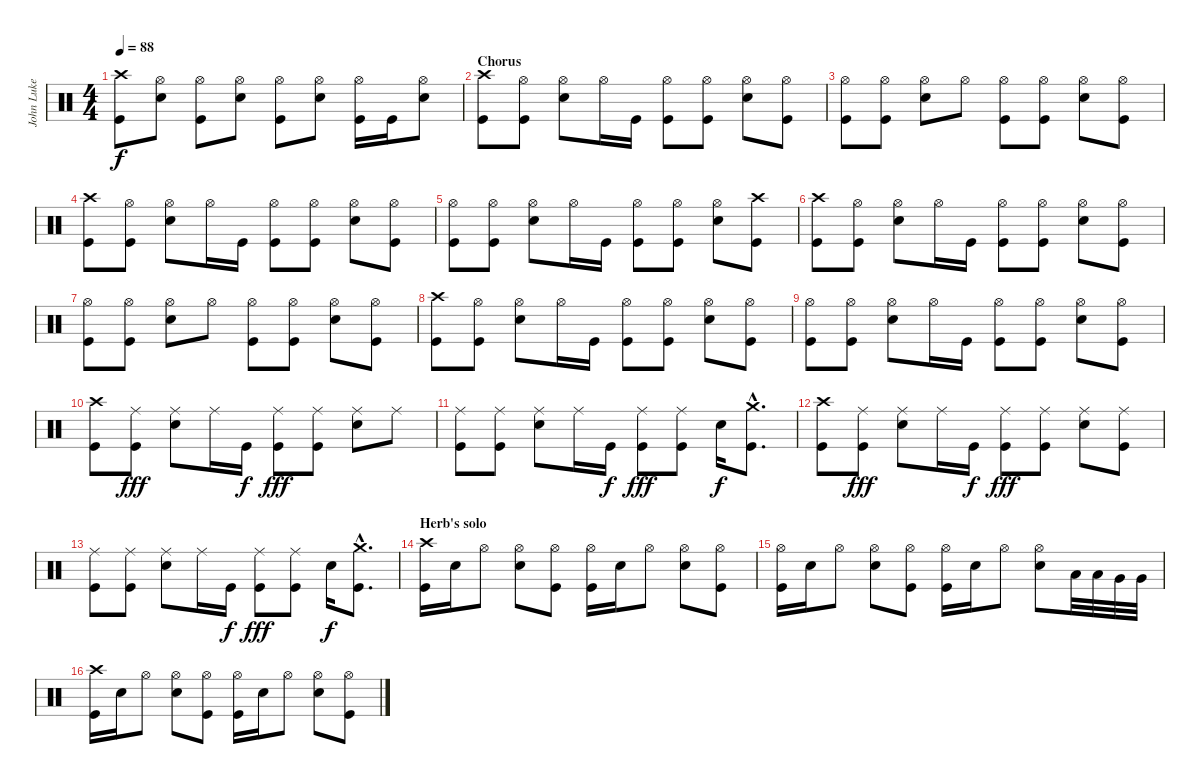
\track ("John Luke (Drums)" "John Luke ") {instrument percussion}
\staff {score}
\articulation defaults
\ts (4 4)
\tempo 88
\clef neutral
\ks c
("Crash high (hit)" "Kick (hit)").8{dy f} ("Hi-Hat (open)" "Electric Snare (hit)").8 ("Hi-Hat (open)" "Kick (hit)").8 ("Hi-Hat (open)" "Electric Snare (hit)").8 ("Hi-Hat (open)" "Kick (hit)").8 ("Hi-Hat (open)" "Electric Snare (hit)").8 ("Hi-Hat (open)" "Kick (hit)").16 "Kick (hit)".16 ("Hi-Hat (open)" "Electric Snare (hit)").8 |
\section ("" "Chorus")
("Crash high (hit)" "Kick (hit)").8 ("Hi-Hat (open)" "Kick (hit)").8 ("Hi-Hat (open)" "Electric Snare (hit)").8 "Hi-Hat (open)".16 "Kick (hit)".16 ("Hi-Hat (open)" "Kick (hit)").8 ("Hi-Hat (open)" "Kick (hit)").8 ("Hi-Hat (open)" "Electric Snare (hit)").8 ("Hi-Hat (open)" "Kick (hit)").8 |
("Hi-Hat (open)" "Kick (hit)").8 ("Hi-Hat (open)" "Kick (hit)").8 ("Hi-Hat (open)" "Electric Snare (hit)").8 "Hi-Hat (open)".8 ("Hi-Hat (open)" "Kick (hit)").8 ("Hi-Hat (open)" "Kick (hit)").8 ("Hi-Hat (open)" "Electric Snare (hit)").8 ("Hi-Hat (open)" "Kick (hit)").8 |
("Crash high (hit)" "Kick (hit)").8 ("Hi-Hat (open)" "Kick (hit)").8 ("Hi-Hat (open)" "Electric Snare (hit)").8 "Hi-Hat (open)".16 "Kick (hit)".16 ("Hi-Hat (open)" "Kick (hit)").8 ("Hi-Hat (open)" "Kick (hit)").8 ("Hi-Hat (open)" "Electric Snare (hit)").8 ("Hi-Hat (open)" "Kick (hit)").8 |
("Hi-Hat (open)" "Kick (hit)").8 ("Hi-Hat (open)" "Kick (hit)").8 ("Hi-Hat (open)" "Electric Snare (hit)").8 "Hi-Hat (open)".16 "Kick (hit)".16 ("Hi-Hat (open)" "Kick (hit)").8 ("Hi-Hat (open)" "Kick (hit)").8 ("Hi-Hat (open)" "Electric Snare (hit)").8 ("Crash high (hit)" "Kick (hit)").8 |
("Crash high (hit)" "Kick (hit)").8 ("Hi-Hat (open)" "Kick (hit)").8 ("Hi-Hat (open)" "Electric Snare (hit)").8 "Hi-Hat (open)".16 "Kick (hit)".16 ("Hi-Hat (open)" "Kick (hit)").8 ("Hi-Hat (open)" "Kick (hit)").8 ("Hi-Hat (open)" "Electric Snare (hit)").8 ("Hi-Hat (open)" "Kick (hit)").8 |
("Hi-Hat (open)" "Kick (hit)").8 ("Hi-Hat (open)" "Kick (hit)").8 ("Hi-Hat (open)" "Electric Snare (hit)").8 "Hi-Hat (open)".8 ("Hi-Hat (open)" "Kick (hit)").8 ("Hi-Hat (open)" "Kick (hit)").8 ("Hi-Hat (open)" "Electric Snare (hit)").8 ("Hi-Hat (open)" "Kick (hit)").8 |
("Crash high (hit)" "Kick (hit)").8 ("Hi-Hat (open)" "Kick (hit)").8 ("Hi-Hat (open)" "Electric Snare (hit)").8 "Hi-Hat (open)".16 "Kick (hit)".16 ("Hi-Hat (open)" "Kick (hit)").8 ("Hi-Hat (open)" "Kick (hit)").8 ("Hi-Hat (open)" "Electric Snare (hit)").8 ("Hi-Hat (open)" "Kick (hit)").8 |
("Hi-Hat (open)" "Kick (hit)").8 ("Hi-Hat (open)" "Kick (hit)").8 ("Hi-Hat (open)" "Electric Snare (hit)").8 "Hi-Hat (open)".16 "Kick (hit)".16 ("Hi-Hat (open)" "Kick (hit)").8 ("Hi-Hat (open)" "Kick (hit)").8 ("Hi-Hat (open)" "Electric Snare (hit)").8 ("Hi-Hat (open)" "Kick (hit)").8 |
("Crash high (hit)" "Kick (hit)").8 ("Ride (middle)" "Kick (hit)").8{dy fff} ("Ride (middle)" "Electric Snare (hit)").8 "Ride (middle)".16 "Kick (hit)".16{dy f} ("Ride (middle)" "Kick (hit)").8{dy fff} ("Ride (middle)" "Kick (hit)").8 ("Ride (middle)" "Electric Snare (hit)").8 "Ride (middle)".8 |
("Ride (middle)" "Kick (hit)").8 ("Ride (middle)" "Kick (hit)").8 ("Ride (middle)" "Electric Snare (hit)").8 "Ride (middle)".16 "Kick (hit)".16{dy f} ("Ride (middle)" "Kick (hit)").8{dy fff} ("Ride (middle)" "Kick (hit)").8 "Electric Snare (hit)".16{dy f} ("Crash medium (hit)"{hac} "Kick (hit)"{hac}).8{d} |
("Crash high (hit)" "Kick (hit)").8 ("Ride (middle)" "Kick (hit)").8{dy fff} ("Ride (middle)" "Electric Snare (hit)").8 "Ride (middle)".16 "Kick (hit)".16{dy f} ("Ride (middle)" "Kick (hit)").8{dy fff} ("Ride (middle)" "Kick (hit)").8 ("Ride (middle)" "Electric Snare (hit)").8 ("Ride (middle)" "Kick (hit)").8 |
("Ride (middle)" "Kick (hit)").8 ("Ride (middle)" "Kick (hit)").8 ("Ride (middle)" "Electric Snare (hit)").8 "Ride (middle)".16 "Kick (hit)".16{dy f} ("Ride (middle)" "Kick (hit)").8{dy fff} ("Ride (middle)" "Kick (hit)").8 "Electric Snare (hit)".16{dy f} ("Crash medium (hit)"{hac} "Kick (hit)"{hac}).8{d} |
\section ("" "Herb's solo")
("Crash high (hit)" "Kick (hit)").16 "Electric Snare (hit)".16 "Hi-Hat (open)".8 ("Hi-Hat (open)" "Electric Snare (hit)").8 ("Hi-Hat (open)" "Kick (hit)").8 ("Hi-Hat (open)" "Kick (hit)").16 "Electric Snare (hit)".16 "Hi-Hat (open)".8 ("Hi-Hat (open)" "Electric Snare (hit)").8 ("Hi-Hat (open)" "Kick (hit)").8 |
("Hi-Hat (open)" "Kick (hit)").16 "Electric Snare (hit)".16 "Hi-Hat (open)".8 ("Hi-Hat (open)" "Electric Snare (hit)").8 ("Hi-Hat (open)" "Kick (hit)").8 ("Hi-Hat (open)" "Kick (hit)").16 "Electric Snare (hit)".16 "Hi-Hat (open)".8 ("Hi-Hat (open)" "Electric Snare (hit)").8 "Low Tom (hit)".32 "Low Tom (hit)".32 "Very Low Tom (hit)".32 "Very Low Tom (hit)".32 |
("Crash high (hit)" "Kick (hit)").16 "Electric Snare (hit)".16 "Hi-Hat (open)".8 ("Hi-Hat (open)" "Electric Snare (hit)").8 ("Hi-Hat (open)" "Kick (hit)").8 ("Hi-Hat (open)" "Kick (hit)").16 "Electric Snare (hit)".16 "Hi-Hat (open)".8 ("Hi-Hat (open)" "Electric Snare (hit)").8 ("Hi-Hat (open)" "Kick (hit)").8
